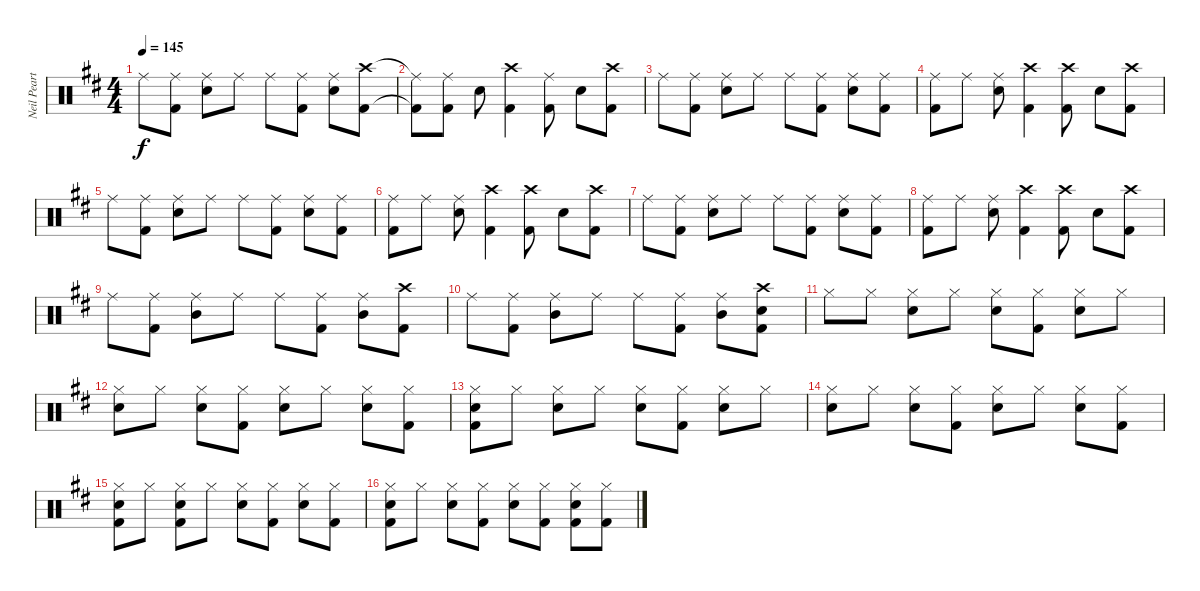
\track ("Neil Peart" "Neil Peart") {instrument percussion}
\staff {score}
\articulation defaults
\ts (4 4)
\tempo 145
\clef neutral
\ks d "Ride (middle)".8{dy f}
("Ride (middle)" "Kick (hit) 2").8 ("Ride (middle)" "Snare (hit) 2").8 "Ride (middle)".8 "Ride (middle)".8 ("Ride (middle)" "Kick (hit) 2").8 ("Ride (middle)" "Snare (hit) 2").8 ("Crash high (hit)" "Kick (hit) 2").8 |
("Ride (middle)"{t} "Kick (hit) 2"{t}).8 ("Ride (middle)" "Kick (hit) 2").8 "Snare (hit) 2".8 ("Crash high (hit)" "Kick (hit) 2").4 ("Ride (middle)" "Kick (hit) 2").8 "Snare (hit) 2".8 ("Crash high (hit)" "Kick (hit) 2").8 |
"Ride (middle)".8 ("Ride (middle)" "Kick (hit) 2").8 ("Ride (middle)" "Snare (hit) 2").8 "Ride (middle)".8 "Ride (middle)".8 ("Ride (middle)" "Kick (hit) 2").8 ("Ride (middle)" "Snare (hit) 2").8 ("Ride (middle)" "Kick (hit) 2").8 |
("Ride (middle)" "Kick (hit) 2").8 "Ride (middle)".8 ("Ride (middle)" "Snare (hit) 2").8 ("Crash high (hit)" "Kick (hit) 2").4 ("Crash high (hit)" "Kick (hit) 2").8 "Snare (hit) 2".8 ("Crash high (hit)" "Kick (hit) 2").8 |
"Ride (middle)".8 ("Ride (middle)" "Kick (hit) 2").8 ("Ride (middle)" "Snare (hit) 2").8 "Ride (middle)".8 "Ride (middle)".8 ("Ride (middle)" "Kick (hit) 2").8 ("Ride (middle)" "Snare (hit) 2").8 ("Ride (middle)" "Kick (hit) 2").8 |
("Ride (middle)" "Kick (hit) 2").8 "Ride (middle)".8 ("Ride (middle)" "Snare (hit) 2").8 ("Crash high (hit)" "Kick (hit) 2").4 ("Crash high (hit)" "Kick (hit) 2").8 "Snare (hit) 2".8 ("Crash high (hit)" "Kick (hit) 2").8 |
"Ride (middle)".8 ("Ride (middle)" "Kick (hit) 2").8 ("Ride (middle)" "Snare (hit) 2").8 "Ride (middle)".8 "Ride (middle)".8 ("Ride (middle)" "Kick (hit) 2").8 ("Ride (middle)" "Snare (hit) 2").8 ("Ride (middle)" "Kick (hit) 2").8 |
("Ride (middle)" "Kick (hit) 2").8 "Ride (middle)".8 ("Ride (middle)" "Snare (hit) 2").8 ("Crash high (hit)" "Kick (hit) 2").4 ("Crash high (hit)" "Kick (hit) 2").8 "Snare (hit) 2".8 ("Crash high (hit)" "Kick (hit) 2").8 |
"Ride (middle)".8 ("Ride (middle)" "Kick (hit) 2").8 ("Ride (middle)" "Mid Tom (hit)").8 "Ride (middle)".8 "Ride (middle)".8 ("Ride (middle)" "Kick (hit) 2").8 ("Ride (middle)" "Mid Tom (hit)").8 ("Crash high (hit)" "Kick (hit) 2").8 |
"Ride (middle)".8 ("Ride (middle)" "Kick (hit) 2").8 ("Ride (middle)" "Mid Tom (hit)").8 "Ride (middle)".8 "Ride (middle)".8 ("Ride (middle)" "Kick (hit) 2").8 ("Ride (middle)" "Mid Tom (hit)").8 ("Crash high (hit)" "Snare (hit) 2" "Kick (hit) 2").8 |
"Hi-Hat (closed)".8 "Hi-Hat (closed)".8 ("Hi-Hat (closed)" "Snare (hit) 2").8 "Hi-Hat (closed)".8 ("Hi-Hat (closed)" "Snare (hit) 2").8 ("Hi-Hat (closed)" "Kick (hit) 2").8 ("Hi-Hat (closed)" "Snare (hit) 2").8 "Hi-Hat (closed)".8 |
("Hi-Hat (closed)" "Snare (hit) 2").8 "Hi-Hat (closed)".8 ("Hi-Hat (closed)" "Snare (hit) 2").8 ("Hi-Hat (closed)" "Kick (hit) 2").8 ("Hi-Hat (closed)" "Snare (hit) 2").8 "Hi-Hat (closed)".8 ("Hi-Hat (closed)" "Snare (hit) 2").8 ("Hi-Hat (closed)" "Kick (hit) 2").8 |
("Hi-Hat (closed)" "Snare (hit) 2" "Kick (hit) 2").8 "Hi-Hat (closed)".8 ("Hi-Hat (closed)" "Snare (hit) 2").8 "Hi-Hat (closed)".8 ("Hi-Hat (closed)" "Snare (hit) 2").8 ("Hi-Hat (closed)" "Kick (hit) 2").8 ("Hi-Hat (closed)" "Snare (hit) 2").8 "Hi-Hat (closed)".8 |
("Hi-Hat (closed)" "Snare (hit) 2").8 "Hi-Hat (closed)".8 ("Hi-Hat (closed)" "Snare (hit) 2").8 ("Hi-Hat (closed)" "Kick (hit) 2").8 ("Hi-Hat (closed)" "Snare (hit) 2").8 "Hi-Hat (closed)".8 ("Hi-Hat (closed)" "Snare (hit) 2").8 ("Hi-Hat (closed)" "Kick (hit) 2").8 |
("Hi-Hat (closed)" "Snare (hit) 2" "Kick (hit) 2").8 "Hi-Hat (closed)".8 ("Hi-Hat (closed)" "Snare (hit) 2" "Kick (hit) 2").8 "Hi-Hat (closed)".8 ("Hi-Hat (closed)" "Snare (hit) 2").8 ("Hi-Hat (closed)" "Kick (hit) 2").8 ("Hi-Hat (closed)" "Snare (hit) 2").8 ("Hi-Hat (closed)" "Kick (hit) 2").8 |
("Hi-Hat (closed)" "Snare (hit) 2" "Kick (hit) 2").8 "Hi-Hat (closed)".8 ("Hi-Hat (closed)" "Snare (hit) 2").8 ("Hi-Hat (closed)" "Kick (hit) 2").8 ("Hi-Hat (closed)" "Snare (hit) 2").8 ("Hi-Hat (closed)" "Kick (hit) 2").8 ("Hi-Hat (closed)" "Snare (hit) 2" "Kick (hit) 2").8 ("Hi-Hat (closed)" "Kick (hit) 2").8
